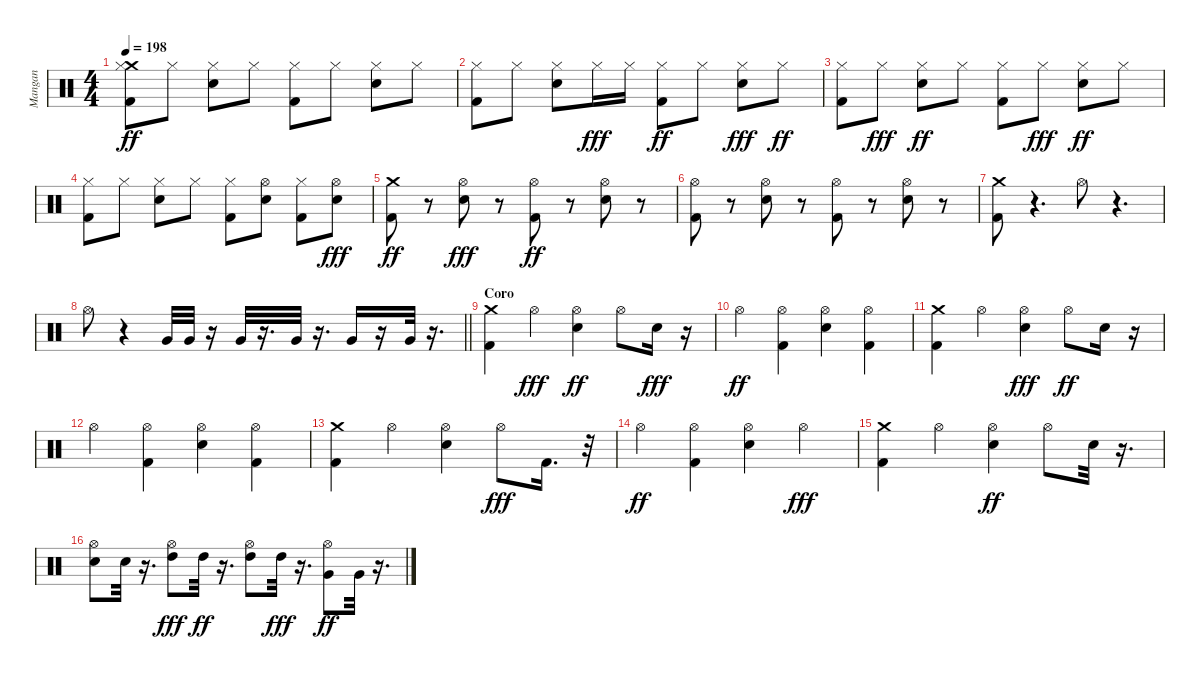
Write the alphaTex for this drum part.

\track ("Mangan" "Mangan") {instrument percussion}
\staff {score}
\articulation defaults
\ts (4 4)
\tempo 198
\clef neutral
\ks c
("Kick (hit) 2" "Crash medium (hit)" "Hi-Hat (closed)").8{dy ff} "Hi-Hat (closed)".8 ("Snare (hit) 2" "Hi-Hat (closed)").8 "Hi-Hat (closed)".8 ("Kick (hit) 2" "Hi-Hat (closed)").8 "Hi-Hat (closed)".8 ("Snare (hit) 2" "Hi-Hat (closed)").8 "Hi-Hat (closed)".8 |
("Kick (hit) 2" "Hi-Hat (closed)").8 "Hi-Hat (closed)".8 ("Snare (hit) 2" "Hi-Hat (closed)").8 "Hi-Hat (closed)".16{dy fff} "Hi-Hat (closed)".16 ("Kick (hit) 2" "Hi-Hat (closed)").8{dy ff} "Hi-Hat (closed)".8 ("Snare (hit) 2" "Hi-Hat (closed)").8{dy fff} "Hi-Hat (closed)".8{dy ff} |
("Kick (hit) 2" "Hi-Hat (closed)").8 "Hi-Hat (closed)".8{dy fff} ("Snare (hit) 2" "Hi-Hat (closed)").8{dy ff} "Hi-Hat (closed)".8 ("Kick (hit) 2" "Hi-Hat (closed)").8 "Hi-Hat (closed)".8{dy fff} ("Snare (hit) 2" "Hi-Hat (closed)").8{dy ff} "Hi-Hat (closed)".8 |
("Kick (hit) 2" "Hi-Hat (closed)").8 "Hi-Hat (closed)".8 ("Snare (hit) 2" "Hi-Hat (closed)").8 "Hi-Hat (closed)".8 ("Kick (hit) 2" "Hi-Hat (closed)").8 ("Snare (hit) 2" "Hi-Hat (open)").8 ("Kick (hit) 2" "Hi-Hat (closed)").8 ("Snare (hit) 2" "Hi-Hat (open)").8{dy fff} |
("Kick (hit) 2" "Crash medium (hit)").8{dy ff} r.8 ("Snare (hit) 2" "Hi-Hat (open)").8{dy fff} r.8 ("Kick (hit) 2" "Hi-Hat (open)").8{dy ff} r.8 ("Snare (hit) 2" "Hi-Hat (open)").8 r.8 |
("Kick (hit) 2" "Hi-Hat (open)").8 r.8 ("Snare (hit) 2" "Hi-Hat (open)").8 r.8 ("Kick (hit) 2" "Hi-Hat (open)").8 r.8 ("Snare (hit) 2" "Hi-Hat (open)").8 r.8 |
("Kick (hit) 2" "Crash medium (hit)").8 r.4{d} "Hi-Hat (open)".8 r.4{d} |
\barLineRight lightlight "Hi-Hat (open)".8
r.4 "Very Low Tom (hit)".32 "Very Low Tom (hit)".32 r.16 "Very Low Tom (hit)".32 r.16{d} "Very Low Tom (hit)".32 r.16{d} "Very Low Tom (hit)".16 r.16 "Very Low Tom (hit)".32 r.16{d} |
\section ("" "Coro")
("Kick (hit) 2" "Crash medium (hit)").4 "Hi-Hat (open)".4{dy fff} ("Snare (hit) 2" "Hi-Hat (open)").4{dy ff} "Hi-Hat (open)".8 "Snare (hit) 2".16{dy fff} r.16 |
"Hi-Hat (open)".4{dy ff} ("Kick (hit) 2" "Hi-Hat (open)").4 ("Snare (hit) 2" "Hi-Hat (open)").4 ("Kick (hit) 2" "Hi-Hat (open)").4 |
("Kick (hit) 2" "Crash medium (hit)").4 "Hi-Hat (open)".4 ("Snare (hit) 2" "Hi-Hat (open)").4{dy fff} "Hi-Hat (open)".8{dy ff} "Snare (hit) 2".16 r.16 |
"Hi-Hat (open)".4 ("Kick (hit) 2" "Hi-Hat (open)").4 ("Snare (hit) 2" "Hi-Hat (open)").4 ("Kick (hit) 2" "Hi-Hat (open)").4 |
("Kick (hit) 2" "Crash medium (hit)").4 "Hi-Hat (open)".4 ("Snare (hit) 2" "Hi-Hat (open)").4 "Hi-Hat (open)".8{dy fff} "Kick (hit) 2".16{d} r.32 |
"Hi-Hat (open)".4{dy ff} ("Kick (hit) 2" "Hi-Hat (open)").4 ("Snare (hit) 2" "Hi-Hat (open)").4 "Hi-Hat (open)".4{dy fff} |
("Kick (hit) 2" "Crash medium (hit)").4 "Hi-Hat (open)".4 ("Snare (hit) 2" "Hi-Hat (open)").4{dy ff} "Hi-Hat (open)".8 "Snare (hit) 2".32 r.16{d} |
("Snare (hit) 2" "Hi-Hat (open)").8 "Snare (hit) 2".32 r.16{d} ("Hi-Hat (open)" "High Tom (hit)").8{dy fff} "High Tom (hit)".32{dy ff} r.16{d} ("Hi-Hat (open)" "High Tom (hit)").8 "High Tom (hit)".32{dy fff} r.16{d} ("Very Low Tom (hit)" "Hi-Hat (open)").8{dy ff} "Very Low Tom (hit)".32 r.16{d}
